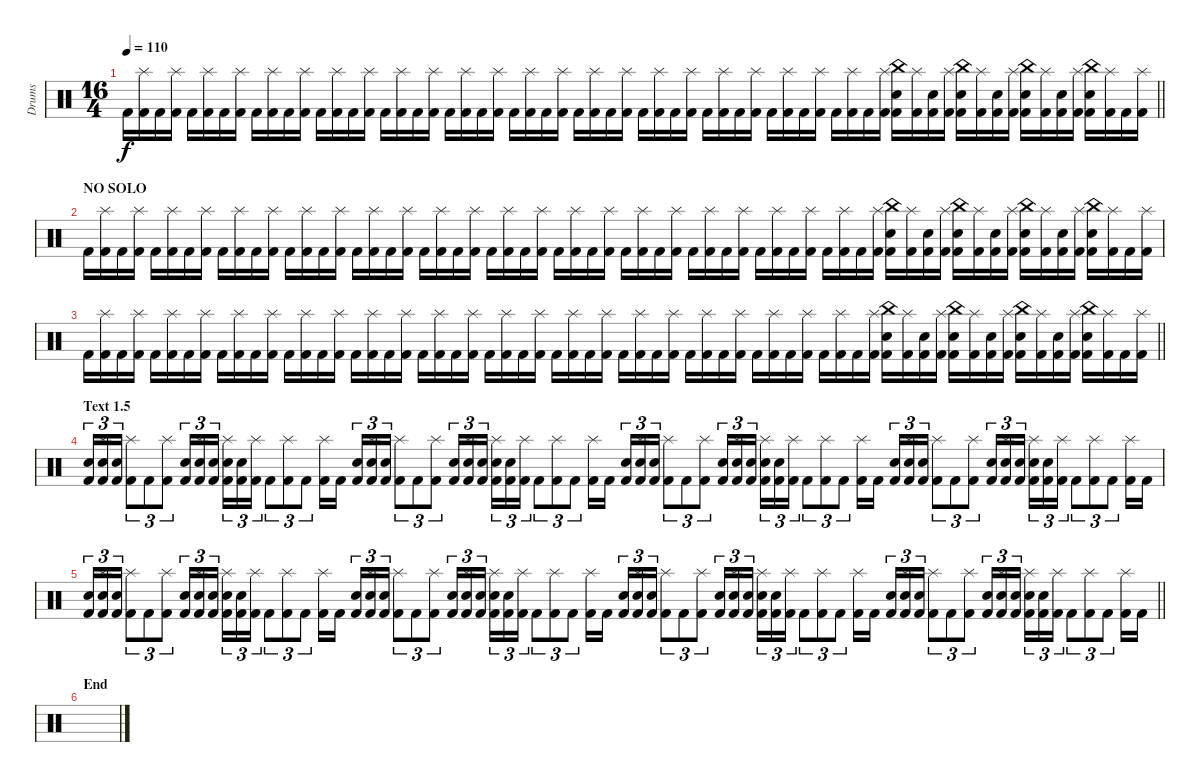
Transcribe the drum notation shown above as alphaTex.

\track ("Drums" "Drums") {instrument percussion}
\staff {score}
\articulation defaults
\ts (16 4)
\tempo 110
\clef neutral
\barLineRight lightlight
\ks c "Kick (hit) 2".16{dy f}
("Kick (hit) 2" "Splash (hit)").16 "Kick (hit) 2".16 ("Kick (hit) 2" "Splash (hit)").16 "Kick (hit) 2".16 ("Kick (hit) 2" "Splash (hit)").16 "Kick (hit) 2".16 ("Kick (hit) 2" "Splash (hit)").16 "Kick (hit) 2".16 ("Kick (hit) 2" "Splash (hit)").16 "Kick (hit) 2".16 ("Kick (hit) 2" "Splash (hit)").16 "Kick (hit) 2".16 ("Kick (hit) 2" "Splash (hit)").16 "Kick (hit) 2".16 ("Kick (hit) 2" "Splash (hit)").16 "Kick (hit) 2".16 ("Kick (hit) 2" "Splash (hit)").16 "Kick (hit) 2".16 ("Kick (hit) 2" "Splash (hit)").16 "Kick (hit) 2".16 ("Kick (hit) 2" "Splash (hit)").16 "Kick (hit) 2".16 ("Kick (hit) 2" "Splash (hit)").16 "Kick (hit) 2".16 ("Kick (hit) 2" "Splash (hit)").16 "Kick (hit) 2".16 ("Kick (hit) 2" "Splash (hit)").16 "Kick (hit) 2".16 ("Kick (hit) 2" "Splash (hit)").16 "Kick (hit) 2".16 ("Kick (hit) 2" "Splash (hit)").16 "Kick (hit) 2".16 ("Kick (hit) 2" "Splash (hit)").16 "Kick (hit) 2".16 ("Kick (hit) 2" "Splash (hit)").16 "Kick (hit) 2".16 ("Kick (hit) 2" "Splash (hit)").16 "Kick (hit) 2".16 ("Kick (hit) 2" "Splash (hit)").16 "Kick (hit) 2".16 ("Kick (hit) 2" "Splash (hit)").16 "Kick (hit) 2".16 ("Kick (hit) 2" "Splash (hit)").16 "Kick (hit) 2".16 ("Kick (hit) 2" "Splash (hit)").16 "Kick (hit) 2".16 ("Kick (hit) 2" "Splash (hit)").16 ("Kick (hit) 2" "Snare (hit) 2" "China (hit)").16 ("Kick (hit) 2" "Splash (hit)").16 ("Kick (hit) 2" "Snare (hit) 2").16 ("Kick (hit) 2" "Splash (hit)").16 ("Kick (hit) 2" "Snare (hit) 2" "China (hit)").16 ("Kick (hit) 2" "Splash (hit)").16 ("Kick (hit) 2" "Snare (hit) 2").16 ("Kick (hit) 2" "Splash (hit)").16 ("Kick (hit) 2" "Snare (hit) 2" "China (hit)").16 ("Kick (hit) 2" "Splash (hit)").16 ("Kick (hit) 2" "Snare (hit) 2").16 ("Kick (hit) 2" "Splash (hit)").16 ("Kick (hit) 2" "Snare (hit) 2" "China (hit)").16 ("Kick (hit) 2" "Splash (hit)").16 "Kick (hit) 2".16 ("Kick (hit) 2" "Splash (hit)").16 |
\section ("" "NO SOLO")
"Kick (hit) 2".16 ("Kick (hit) 2" "Splash (hit)").16 "Kick (hit) 2".16 ("Kick (hit) 2" "Splash (hit)").16 "Kick (hit) 2".16 ("Kick (hit) 2" "Splash (hit)").16 "Kick (hit) 2".16 ("Kick (hit) 2" "Splash (hit)").16 "Kick (hit) 2".16 ("Kick (hit) 2" "Splash (hit)").16 "Kick (hit) 2".16 ("Kick (hit) 2" "Splash (hit)").16 "Kick (hit) 2".16 ("Kick (hit) 2" "Splash (hit)").16 "Kick (hit) 2".16 ("Kick (hit) 2" "Splash (hit)").16 "Kick (hit) 2".16 ("Kick (hit) 2" "Splash (hit)").16 "Kick (hit) 2".16 ("Kick (hit) 2" "Splash (hit)").16 "Kick (hit) 2".16 ("Kick (hit) 2" "Splash (hit)").16 "Kick (hit) 2".16 ("Kick (hit) 2" "Splash (hit)").16 "Kick (hit) 2".16 ("Kick (hit) 2" "Splash (hit)").16 "Kick (hit) 2".16 ("Kick (hit) 2" "Splash (hit)").16 "Kick (hit) 2".16 ("Kick (hit) 2" "Splash (hit)").16 "Kick (hit) 2".16 ("Kick (hit) 2" "Splash (hit)").16 "Kick (hit) 2".16 ("Kick (hit) 2" "Splash (hit)").16 "Kick (hit) 2".16 ("Kick (hit) 2" "Splash (hit)").16 "Kick (hit) 2".16 ("Kick (hit) 2" "Splash (hit)").16 "Kick (hit) 2".16 ("Kick (hit) 2" "Splash (hit)").16 "Kick (hit) 2".16 ("Kick (hit) 2" "Splash (hit)").16 "Kick (hit) 2".16 ("Kick (hit) 2" "Splash (hit)").16 "Kick (hit) 2".16 ("Kick (hit) 2" "Splash (hit)").16 "Kick (hit) 2".16 ("Kick (hit) 2" "Splash (hit)").16 ("Kick (hit) 2" "Snare (hit) 2" "China (hit)").16 ("Kick (hit) 2" "Splash (hit)").16 ("Kick (hit) 2" "Snare (hit) 2").16 ("Kick (hit) 2" "Splash (hit)").16 ("Kick (hit) 2" "Snare (hit) 2" "China (hit)").16 ("Kick (hit) 2" "Splash (hit)").16 ("Kick (hit) 2" "Snare (hit) 2").16 ("Kick (hit) 2" "Splash (hit)").16 ("Kick (hit) 2" "Snare (hit) 2" "China (hit)").16 ("Kick (hit) 2" "Splash (hit)").16 ("Kick (hit) 2" "Snare (hit) 2").16 ("Kick (hit) 2" "Splash (hit)").16 ("Kick (hit) 2" "Snare (hit) 2" "China (hit)").16 ("Kick (hit) 2" "Splash (hit)").16 "Kick (hit) 2".16 ("Kick (hit) 2" "Splash (hit)").16 |
\barLineRight lightlight "Kick (hit) 2".16
("Kick (hit) 2" "Splash (hit)").16 "Kick (hit) 2".16 ("Kick (hit) 2" "Splash (hit)").16 "Kick (hit) 2".16 ("Kick (hit) 2" "Splash (hit)").16 "Kick (hit) 2".16 ("Kick (hit) 2" "Splash (hit)").16 "Kick (hit) 2".16 ("Kick (hit) 2" "Splash (hit)").16 "Kick (hit) 2".16 ("Kick (hit) 2" "Splash (hit)").16 "Kick (hit) 2".16 ("Kick (hit) 2" "Splash (hit)").16 "Kick (hit) 2".16 ("Kick (hit) 2" "Splash (hit)").16 "Kick (hit) 2".16 ("Kick (hit) 2" "Splash (hit)").16 "Kick (hit) 2".16 ("Kick (hit) 2" "Splash (hit)").16 "Kick (hit) 2".16 ("Kick (hit) 2" "Splash (hit)").16 "Kick (hit) 2".16 ("Kick (hit) 2" "Splash (hit)").16 "Kick (hit) 2".16 ("Kick (hit) 2" "Splash (hit)").16 "Kick (hit) 2".16 ("Kick (hit) 2" "Splash (hit)").16 "Kick (hit) 2".16 ("Kick (hit) 2" "Splash (hit)").16 "Kick (hit) 2".16 ("Kick (hit) 2" "Splash (hit)").16 "Kick (hit) 2".16 ("Kick (hit) 2" "Splash (hit)").16 "Kick (hit) 2".16 ("Kick (hit) 2" "Splash (hit)").16 "Kick (hit) 2".16 ("Kick (hit) 2" "Splash (hit)").16 "Kick (hit) 2".16 ("Kick (hit) 2" "Splash (hit)").16 "Kick (hit) 2".16 ("Kick (hit) 2" "Splash (hit)").16 "Kick (hit) 2".16 ("Kick (hit) 2" "Splash (hit)").16 "Kick (hit) 2".16 ("Kick (hit) 2" "Splash (hit)").16 "Kick (hit) 2".16 ("Kick (hit) 2" "Splash (hit)").16 ("Kick (hit) 2" "Snare (hit) 2" "China (hit)").16 ("Kick (hit) 2" "Splash (hit)").16 ("Kick (hit) 2" "Snare (hit) 2").16 ("Kick (hit) 2" "Splash (hit)").16 ("Kick (hit) 2" "Snare (hit) 2" "China (hit)").16 ("Kick (hit) 2" "Splash (hit)").16 ("Kick (hit) 2" "Snare (hit) 2").16 ("Kick (hit) 2" "Splash (hit)").16 ("Kick (hit) 2" "Snare (hit) 2" "China (hit)").16 ("Kick (hit) 2" "Splash (hit)").16 ("Kick (hit) 2" "Snare (hit) 2").16 ("Kick (hit) 2" "Splash (hit)").16 ("Kick (hit) 2" "Snare (hit) 2" "China (hit)").16 ("Kick (hit) 2" "Splash (hit)").16 "Kick (hit) 2".16 ("Kick (hit) 2" "Splash (hit)").16 |
\section ("" "Text 1.5")
("Kick (hit) 2" "Snare (hit) 2").16{tu (3 2)} ("Kick (hit) 2" "Snare (hit) 2" "Splash (hit)").16{tu (3 2)} ("Kick (hit) 2" "Snare (hit) 2").16{tu (3 2)} ("Kick (hit) 2" "Splash (hit)").8{tu (3 2)} "Kick (hit) 2".8{tu (3 2)} ("Kick (hit) 2" "Splash (hit)").8{tu (3 2)} ("Kick (hit) 2" "Snare (hit) 2").16{tu (3 2)} ("Kick (hit) 2" "Snare (hit) 2" "Splash (hit)").16{tu (3 2)} ("Kick (hit) 2" "Snare (hit) 2").16{tu (3 2)} ("Kick (hit) 2" "Snare (hit) 2" "Splash (hit)").16{tu (3 2)} ("Kick (hit) 2" "Snare (hit) 2").16{tu (3 2)} ("Kick (hit) 2" "Splash (hit)").16{tu (3 2)} "Kick (hit) 2".8{tu (3 2)} ("Kick (hit) 2" "Splash (hit)").8{tu (3 2)} "Kick (hit) 2".8{tu (3 2)} ("Kick (hit) 2" "Splash (hit)").16 "Kick (hit) 2".16 ("Kick (hit) 2" "Snare (hit) 2").16{tu (3 2)} ("Kick (hit) 2" "Snare (hit) 2" "Splash (hit)").16{tu (3 2)} ("Kick (hit) 2" "Snare (hit) 2").16{tu (3 2)} ("Kick (hit) 2" "Splash (hit)").8{tu (3 2)} "Kick (hit) 2".8{tu (3 2)} ("Kick (hit) 2" "Splash (hit)").8{tu (3 2)} ("Kick (hit) 2" "Snare (hit) 2").16{tu (3 2)} ("Kick (hit) 2" "Snare (hit) 2" "Splash (hit)").16{tu (3 2)} ("Kick (hit) 2" "Snare (hit) 2").16{tu (3 2)} ("Kick (hit) 2" "Snare (hit) 2" "Splash (hit)").16{tu (3 2)} ("Kick (hit) 2" "Snare (hit) 2").16{tu (3 2)} ("Kick (hit) 2" "Splash (hit)").16{tu (3 2)} "Kick (hit) 2".8{tu (3 2)} ("Kick (hit) 2" "Splash (hit)").8{tu (3 2)} "Kick (hit) 2".8{tu (3 2)} ("Kick (hit) 2" "Splash (hit)").16 "Kick (hit) 2".16 ("Kick (hit) 2" "Snare (hit) 2").16{tu (3 2)} ("Kick (hit) 2" "Snare (hit) 2" "Splash (hit)").16{tu (3 2)} ("Kick (hit) 2" "Snare (hit) 2").16{tu (3 2)} ("Kick (hit) 2" "Splash (hit)").8{tu (3 2)} "Kick (hit) 2".8{tu (3 2)} ("Kick (hit) 2" "Splash (hit)").8{tu (3 2)} ("Kick (hit) 2" "Snare (hit) 2").16{tu (3 2)} ("Kick (hit) 2" "Snare (hit) 2" "Splash (hit)").16{tu (3 2)} ("Kick (hit) 2" "Snare (hit) 2").16{tu (3 2)} ("Kick (hit) 2" "Snare (hit) 2" "Splash (hit)").16{tu (3 2)} ("Kick (hit) 2" "Snare (hit) 2").16{tu (3 2)} ("Kick (hit) 2" "Splash (hit)").16{tu (3 2)} "Kick (hit) 2".8{tu (3 2)} ("Kick (hit) 2" "Splash (hit)").8{tu (3 2)} "Kick (hit) 2".8{tu (3 2)} ("Kick (hit) 2" "Splash (hit)").16 "Kick (hit) 2".16 ("Kick (hit) 2" "Snare (hit) 2").16{tu (3 2)} ("Kick (hit) 2" "Snare (hit) 2" "Splash (hit)").16{tu (3 2)} ("Kick (hit) 2" "Snare (hit) 2").16{tu (3 2)} ("Kick (hit) 2" "Splash (hit)").8{tu (3 2)} "Kick (hit) 2".8{tu (3 2)} ("Kick (hit) 2" "Splash (hit)").8{tu (3 2)} ("Kick (hit) 2" "Snare (hit) 2").16{tu (3 2)} ("Kick (hit) 2" "Snare (hit) 2" "Splash (hit)").16{tu (3 2)} ("Kick (hit) 2" "Snare (hit) 2").16{tu (3 2)} ("Kick (hit) 2" "Snare (hit) 2" "Splash (hit)").16{tu (3 2)} ("Kick (hit) 2" "Snare (hit) 2").16{tu (3 2)} ("Kick (hit) 2" "Splash (hit)").16{tu (3 2)} "Kick (hit) 2".8{tu (3 2)} ("Kick (hit) 2" "Splash (hit)").8{tu (3 2)} "Kick (hit) 2".8{tu (3 2)} ("Kick (hit) 2" "Splash (hit)").16 "Kick (hit) 2".16 |
\barLineRight lightlight
("Kick (hit) 2" "Snare (hit) 2").16{tu (3 2)} ("Kick (hit) 2" "Snare (hit) 2" "Splash (hit)").16{tu (3 2)} ("Kick (hit) 2" "Snare (hit) 2").16{tu (3 2)} ("Kick (hit) 2" "Splash (hit)").8{tu (3 2)} "Kick (hit) 2".8{tu (3 2)} ("Kick (hit) 2" "Splash (hit)").8{tu (3 2)} ("Kick (hit) 2" "Snare (hit) 2").16{tu (3 2)} ("Kick (hit) 2" "Snare (hit) 2" "Splash (hit)").16{tu (3 2)} ("Kick (hit) 2" "Snare (hit) 2").16{tu (3 2)} ("Kick (hit) 2" "Snare (hit) 2" "Splash (hit)").16{tu (3 2)} ("Kick (hit) 2" "Snare (hit) 2").16{tu (3 2)} ("Kick (hit) 2" "Splash (hit)").16{tu (3 2)} "Kick (hit) 2".8{tu (3 2)} ("Kick (hit) 2" "Splash (hit)").8{tu (3 2)} "Kick (hit) 2".8{tu (3 2)} ("Kick (hit) 2" "Splash (hit)").16 "Kick (hit) 2".16 ("Kick (hit) 2" "Snare (hit) 2").16{tu (3 2)} ("Kick (hit) 2" "Snare (hit) 2" "Splash (hit)").16{tu (3 2)} ("Kick (hit) 2" "Snare (hit) 2").16{tu (3 2)} ("Kick (hit) 2" "Splash (hit)").8{tu (3 2)} "Kick (hit) 2".8{tu (3 2)} ("Kick (hit) 2" "Splash (hit)").8{tu (3 2)} ("Kick (hit) 2" "Snare (hit) 2").16{tu (3 2)} ("Kick (hit) 2" "Snare (hit) 2" "Splash (hit)").16{tu (3 2)} ("Kick (hit) 2" "Snare (hit) 2").16{tu (3 2)} ("Kick (hit) 2" "Snare (hit) 2" "Splash (hit)").16{tu (3 2)} ("Kick (hit) 2" "Snare (hit) 2").16{tu (3 2)} ("Kick (hit) 2" "Splash (hit)").16{tu (3 2)} "Kick (hit) 2".8{tu (3 2)} ("Kick (hit) 2" "Splash (hit)").8{tu (3 2)} "Kick (hit) 2".8{tu (3 2)} ("Kick (hit) 2" "Splash (hit)").16 "Kick (hit) 2".16 ("Kick (hit) 2" "Snare (hit) 2").16{tu (3 2)} ("Kick (hit) 2" "Snare (hit) 2" "Splash (hit)").16{tu (3 2)} ("Kick (hit) 2" "Snare (hit) 2").16{tu (3 2)} ("Kick (hit) 2" "Splash (hit)").8{tu (3 2)} "Kick (hit) 2".8{tu (3 2)} ("Kick (hit) 2" "Splash (hit)").8{tu (3 2)} ("Kick (hit) 2" "Snare (hit) 2").16{tu (3 2)} ("Kick (hit) 2" "Snare (hit) 2" "Splash (hit)").16{tu (3 2)} ("Kick (hit) 2" "Snare (hit) 2").16{tu (3 2)} ("Kick (hit) 2" "Snare (hit) 2" "Splash (hit)").16{tu (3 2)} ("Kick (hit) 2" "Snare (hit) 2").16{tu (3 2)} ("Kick (hit) 2" "Splash (hit)").16{tu (3 2)} "Kick (hit) 2".8{tu (3 2)} ("Kick (hit) 2" "Splash (hit)").8{tu (3 2)} "Kick (hit) 2".8{tu (3 2)} ("Kick (hit) 2" "Splash (hit)").16 "Kick (hit) 2".16 ("Kick (hit) 2" "Snare (hit) 2").16{tu (3 2)} ("Kick (hit) 2" "Snare (hit) 2" "Splash (hit)").16{tu (3 2)} ("Kick (hit) 2" "Snare (hit) 2").16{tu (3 2)} ("Kick (hit) 2" "Splash (hit)").8{tu (3 2)} "Kick (hit) 2".8{tu (3 2)} ("Kick (hit) 2" "Splash (hit)").8{tu (3 2)} ("Kick (hit) 2" "Snare (hit) 2").16{tu (3 2)} ("Kick (hit) 2" "Snare (hit) 2" "Splash (hit)").16{tu (3 2)} ("Kick (hit) 2" "Snare (hit) 2").16{tu (3 2)} ("Kick (hit) 2" "Snare (hit) 2" "Splash (hit)").16{tu (3 2)} ("Kick (hit) 2" "Snare (hit) 2").16{tu (3 2)} ("Kick (hit) 2" "Splash (hit)").16{tu (3 2)} "Kick (hit) 2".8{tu (3 2)} ("Kick (hit) 2" "Splash (hit)").8{tu (3 2)} "Kick (hit) 2".8{tu (3 2)} ("Kick (hit) 2" "Splash (hit)").16 "Kick (hit) 2".16 |
\section ("" "End")
